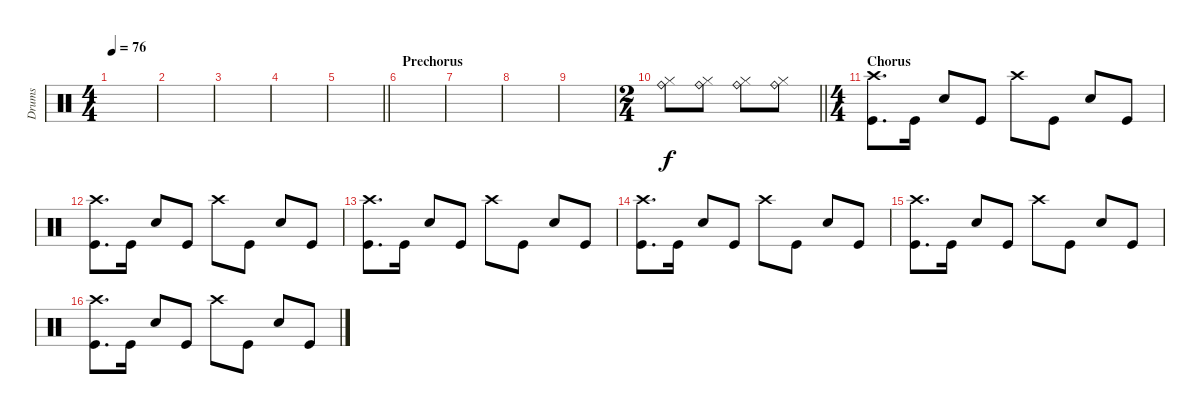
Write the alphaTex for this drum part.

\track ("Drums" "Drums") {instrument percussion}
\staff {score}
\articulation defaults
\ts (4 4)
\tempo 76
\clef neutral
\ks c
|
|
|
|
\barLineRight lightlight
|
\section ("" "Prechorus")
|
|
|
|
\ts (2 4)
\barLineRight lightlight
("Ride (bell)" "Hi-Hat (closed)").8 ("Ride (bell)" "Hi-Hat (closed)").8 ("Ride (bell)" "Hi-Hat (closed)").8 ("Ride (bell)" "Hi-Hat (closed)").8 |
\ts (4 4)
\section ("" "Chorus")
("Crash high (hit)" "Kick (hit)").8{d} "Kick (hit)".16 "Snare (hit) 2".8 "Kick (hit)".8 "Crash high (hit)".8 "Kick (hit)".8 "Snare (hit) 2".8 "Kick (hit)".8 |
("Crash high (hit)" "Kick (hit)").8{d} "Kick (hit)".16 "Snare (hit) 2".8 "Kick (hit)".8 "Crash high (hit)".8 "Kick (hit)".8 "Snare (hit) 2".8 "Kick (hit)".8 |
("Crash high (hit)" "Kick (hit)").8{d} "Kick (hit)".16 "Snare (hit) 2".8 "Kick (hit)".8 "Crash high (hit)".8 "Kick (hit)".8 "Snare (hit) 2".8 "Kick (hit)".8 |
("Crash high (hit)" "Kick (hit)").8{d} "Kick (hit)".16 "Snare (hit) 2".8 "Kick (hit)".8 "Crash high (hit)".8 "Kick (hit)".8 "Snare (hit) 2".8 "Kick (hit)".8 |
("Crash high (hit)" "Kick (hit)").8{d} "Kick (hit)".16 "Snare (hit) 2".8 "Kick (hit)".8 "Crash high (hit)".8 "Kick (hit)".8 "Snare (hit) 2".8 "Kick (hit)".8 |
("Crash high (hit)" "Kick (hit)").8{d} "Kick (hit)".16 "Snare (hit) 2".8 "Kick (hit)".8 "Crash high (hit)".8 "Kick (hit)".8 "Snare (hit) 2".8 "Kick (hit)".8
